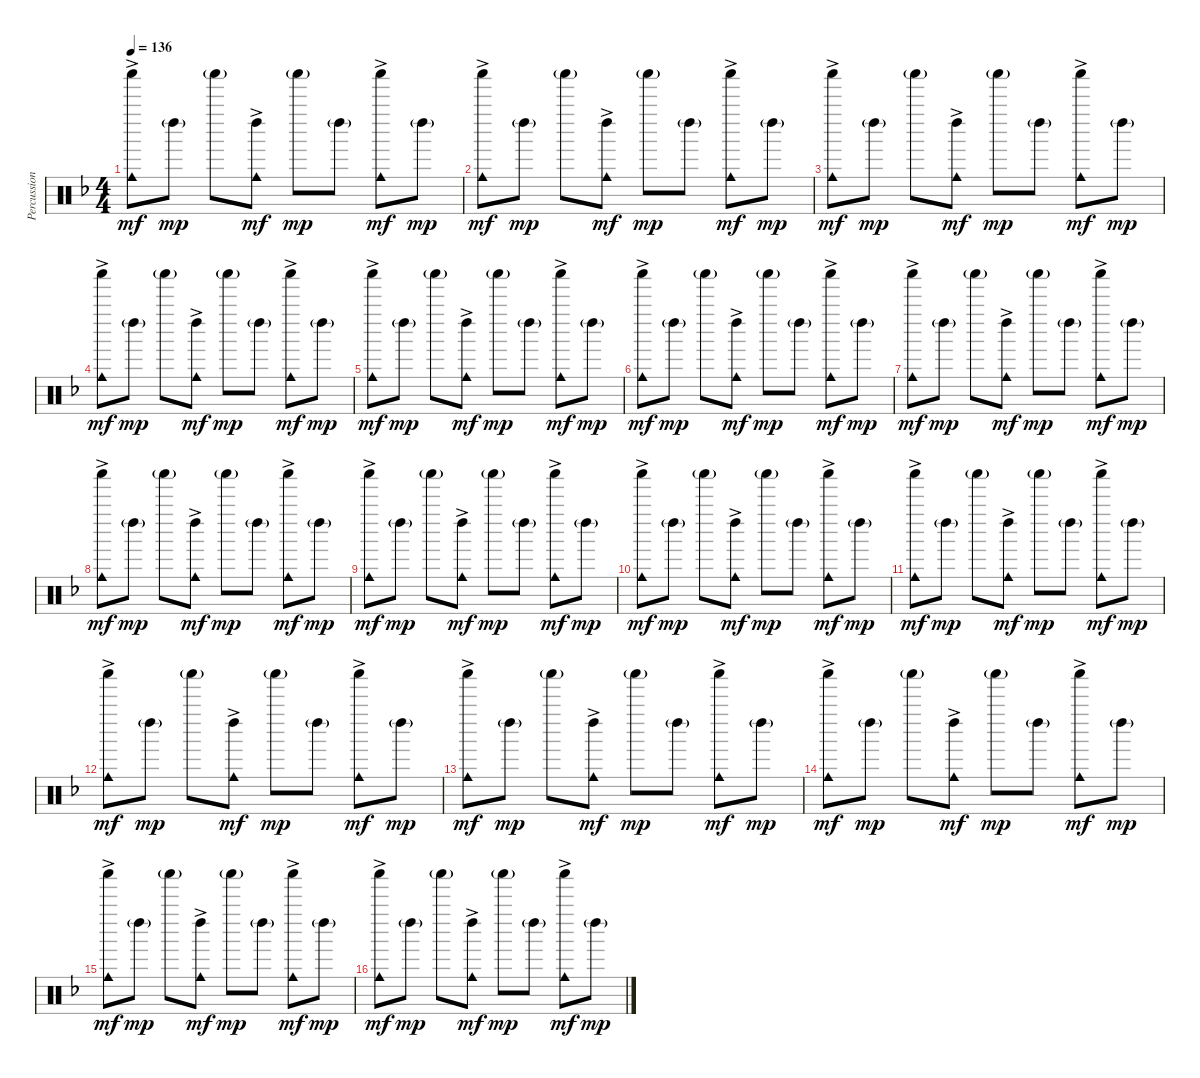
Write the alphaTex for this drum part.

\track ("Percussion" "Percussion") {instrument percussion}
\staff {score}
\articulation defaults
\ts (4 4)
\tempo 136
\clef neutral
\ks f
("Shaker (hit)"{ac} "Cowbell medium (hit)").8{dy mf} "Left Maraca (hit)"{g}.8{dy mp} "Shaker (hit)"{g}.8 ("Left Maraca (hit)"{ac} "Cowbell medium (hit)").8{dy mf} "Shaker (hit)"{g}.8{dy mp} "Left Maraca (hit)"{g}.8 ("Shaker (hit)"{ac} "Cowbell medium (hit)").8{dy mf} "Left Maraca (hit)"{g}.8{dy mp} |
("Shaker (hit)"{ac} "Cowbell medium (hit)").8{dy mf} "Left Maraca (hit)"{g}.8{dy mp} "Shaker (hit)"{g}.8 ("Left Maraca (hit)"{ac} "Cowbell medium (hit)").8{dy mf} "Shaker (hit)"{g}.8{dy mp} "Left Maraca (hit)"{g}.8 ("Shaker (hit)"{ac} "Cowbell medium (hit)").8{dy mf} "Left Maraca (hit)"{g}.8{dy mp} |
("Shaker (hit)"{ac} "Cowbell medium (hit)").8{dy mf} "Left Maraca (hit)"{g}.8{dy mp} "Shaker (hit)"{g}.8 ("Left Maraca (hit)"{ac} "Cowbell medium (hit)").8{dy mf} "Shaker (hit)"{g}.8{dy mp} "Left Maraca (hit)"{g}.8 ("Shaker (hit)"{ac} "Cowbell medium (hit)").8{dy mf} "Left Maraca (hit)"{g}.8{dy mp} |
("Shaker (hit)"{ac} "Cowbell medium (hit)").8{dy mf} "Left Maraca (hit)"{g}.8{dy mp} "Shaker (hit)"{g}.8 ("Left Maraca (hit)"{ac} "Cowbell medium (hit)").8{dy mf} "Shaker (hit)"{g}.8{dy mp} "Left Maraca (hit)"{g}.8 ("Shaker (hit)"{ac} "Cowbell medium (hit)").8{dy mf} "Left Maraca (hit)"{g}.8{dy mp} |
("Shaker (hit)"{ac} "Cowbell medium (hit)").8{dy mf} "Left Maraca (hit)"{g}.8{dy mp} "Shaker (hit)"{g}.8 ("Left Maraca (hit)"{ac} "Cowbell medium (hit)").8{dy mf} "Shaker (hit)"{g}.8{dy mp} "Left Maraca (hit)"{g}.8 ("Shaker (hit)"{ac} "Cowbell medium (hit)").8{dy mf} "Left Maraca (hit)"{g}.8{dy mp} |
("Shaker (hit)"{ac} "Cowbell medium (hit)").8{dy mf} "Left Maraca (hit)"{g}.8{dy mp} "Shaker (hit)"{g}.8 ("Left Maraca (hit)"{ac} "Cowbell medium (hit)").8{dy mf} "Shaker (hit)"{g}.8{dy mp} "Left Maraca (hit)"{g}.8 ("Shaker (hit)"{ac} "Cowbell medium (hit)").8{dy mf} "Left Maraca (hit)"{g}.8{dy mp} |
("Shaker (hit)"{ac} "Cowbell medium (hit)").8{dy mf} "Left Maraca (hit)"{g}.8{dy mp} "Shaker (hit)"{g}.8 ("Left Maraca (hit)"{ac} "Cowbell medium (hit)").8{dy mf} "Shaker (hit)"{g}.8{dy mp} "Left Maraca (hit)"{g}.8 ("Shaker (hit)"{ac} "Cowbell medium (hit)").8{dy mf} "Left Maraca (hit)"{g}.8{dy mp} |
("Shaker (hit)"{ac} "Cowbell medium (hit)").8{dy mf} "Left Maraca (hit)"{g}.8{dy mp} "Shaker (hit)"{g}.8 ("Left Maraca (hit)"{ac} "Cowbell medium (hit)").8{dy mf} "Shaker (hit)"{g}.8{dy mp} "Left Maraca (hit)"{g}.8 ("Shaker (hit)"{ac} "Cowbell medium (hit)").8{dy mf} "Left Maraca (hit)"{g}.8{dy mp} |
("Shaker (hit)"{ac} "Cowbell medium (hit)").8{dy mf} "Left Maraca (hit)"{g}.8{dy mp} "Shaker (hit)"{g}.8 ("Left Maraca (hit)"{ac} "Cowbell medium (hit)").8{dy mf} "Shaker (hit)"{g}.8{dy mp} "Left Maraca (hit)"{g}.8 ("Shaker (hit)"{ac} "Cowbell medium (hit)").8{dy mf} "Left Maraca (hit)"{g}.8{dy mp} |
("Shaker (hit)"{ac} "Cowbell medium (hit)").8{dy mf} "Left Maraca (hit)"{g}.8{dy mp} "Shaker (hit)"{g}.8 ("Left Maraca (hit)"{ac} "Cowbell medium (hit)").8{dy mf} "Shaker (hit)"{g}.8{dy mp} "Left Maraca (hit)"{g}.8 ("Shaker (hit)"{ac} "Cowbell medium (hit)").8{dy mf} "Left Maraca (hit)"{g}.8{dy mp} |
("Shaker (hit)"{ac} "Cowbell medium (hit)").8{dy mf} "Left Maraca (hit)"{g}.8{dy mp} "Shaker (hit)"{g}.8 ("Left Maraca (hit)"{ac} "Cowbell medium (hit)").8{dy mf} "Shaker (hit)"{g}.8{dy mp} "Left Maraca (hit)"{g}.8 ("Shaker (hit)"{ac} "Cowbell medium (hit)").8{dy mf} "Left Maraca (hit)"{g}.8{dy mp} |
("Shaker (hit)"{ac} "Cowbell medium (hit)").8{dy mf} "Left Maraca (hit)"{g}.8{dy mp} "Shaker (hit)"{g}.8 ("Left Maraca (hit)"{ac} "Cowbell medium (hit)").8{dy mf} "Shaker (hit)"{g}.8{dy mp} "Left Maraca (hit)"{g}.8 ("Shaker (hit)"{ac} "Cowbell medium (hit)").8{dy mf} "Left Maraca (hit)"{g}.8{dy mp} |
("Shaker (hit)"{ac} "Cowbell medium (hit)").8{dy mf} "Left Maraca (hit)"{g}.8{dy mp} "Shaker (hit)"{g}.8 ("Left Maraca (hit)"{ac} "Cowbell medium (hit)").8{dy mf} "Shaker (hit)"{g}.8{dy mp} "Left Maraca (hit)"{g}.8 ("Shaker (hit)"{ac} "Cowbell medium (hit)").8{dy mf} "Left Maraca (hit)"{g}.8{dy mp} |
("Shaker (hit)"{ac} "Cowbell medium (hit)").8{dy mf} "Left Maraca (hit)"{g}.8{dy mp} "Shaker (hit)"{g}.8 ("Left Maraca (hit)"{ac} "Cowbell medium (hit)").8{dy mf} "Shaker (hit)"{g}.8{dy mp} "Left Maraca (hit)"{g}.8 ("Shaker (hit)"{ac} "Cowbell medium (hit)").8{dy mf} "Left Maraca (hit)"{g}.8{dy mp} |
("Shaker (hit)"{ac} "Cowbell medium (hit)").8{dy mf} "Left Maraca (hit)"{g}.8{dy mp} "Shaker (hit)"{g}.8 ("Left Maraca (hit)"{ac} "Cowbell medium (hit)").8{dy mf} "Shaker (hit)"{g}.8{dy mp} "Left Maraca (hit)"{g}.8 ("Shaker (hit)"{ac} "Cowbell medium (hit)").8{dy mf} "Left Maraca (hit)"{g}.8{dy mp} |
("Shaker (hit)"{ac} "Cowbell medium (hit)").8{dy mf} "Left Maraca (hit)"{g}.8{dy mp} "Shaker (hit)"{g}.8 ("Left Maraca (hit)"{ac} "Cowbell medium (hit)").8{dy mf} "Shaker (hit)"{g}.8{dy mp} "Left Maraca (hit)"{g}.8 ("Shaker (hit)"{ac} "Cowbell medium (hit)").8{dy mf} "Left Maraca (hit)"{g}.8{dy mp}
